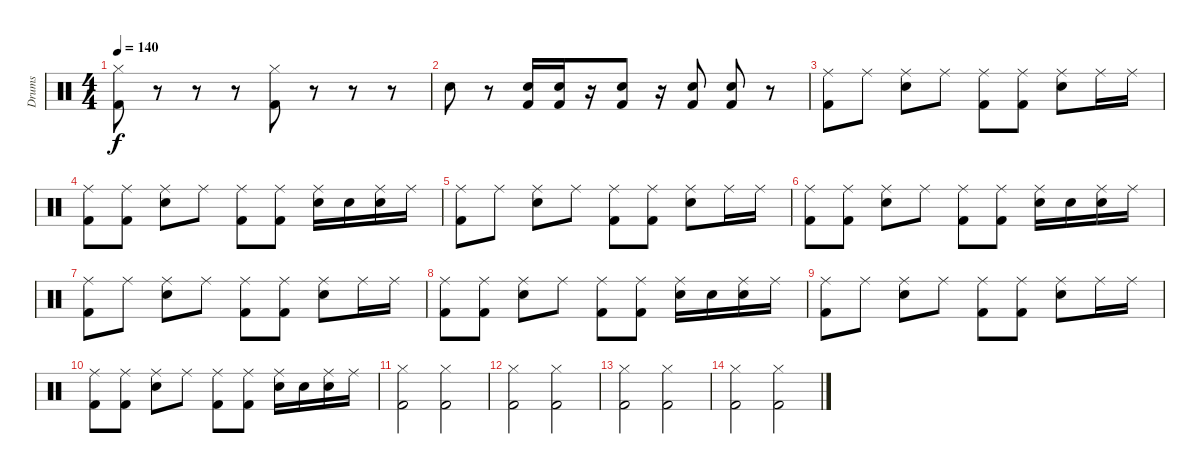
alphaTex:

\track ("Drums" "Drums") {instrument percussion}
\staff {score}
\articulation defaults
\ts (4 4)
\tempo 140
\clef neutral
\ks c
("Hi-Hat (closed)" "Kick (hit) 2").8{dy f} r.8 r.8 r.8 ("Hi-Hat (closed)" "Kick (hit) 2").8 r.8 r.8 r.8 |
"Electric Snare (hit)".8 r.8 ("Electric Snare (hit)" "Kick (hit) 2").16 ("Electric Snare (hit)" "Kick (hit) 2").16 r.16 ("Electric Snare (hit)" "Kick (hit) 2").8 r.16 ("Electric Snare (hit)" "Kick (hit) 2").8 ("Electric Snare (hit)" "Kick (hit) 2").8 r.8 |
("Ride (middle)" "Kick (hit) 2").8 "Ride (middle)".8 ("Ride (middle)" "Electric Snare (hit)").8 "Ride (middle)".8 ("Ride (middle)" "Kick (hit) 2").8 ("Ride (middle)" "Kick (hit) 2").8 ("Ride (middle)" "Electric Snare (hit)").8 "Ride (middle)".16 "Ride (middle)".16 |
("Ride (middle)" "Kick (hit) 2").8 ("Ride (middle)" "Kick (hit) 2").8 ("Ride (middle)" "Electric Snare (hit)").8 "Ride (middle)".8 ("Ride (middle)" "Kick (hit) 2").8 ("Ride (middle)" "Kick (hit) 2").8 ("Ride (middle)" "Electric Snare (hit)").16 "Electric Snare (hit)".16 ("Ride (middle)" "Electric Snare (hit)").16 "Ride (middle)".16 |
("Ride (middle)" "Kick (hit) 2").8 "Ride (middle)".8 ("Ride (middle)" "Electric Snare (hit)").8 "Ride (middle)".8 ("Ride (middle)" "Kick (hit) 2").8 ("Ride (middle)" "Kick (hit) 2").8 ("Ride (middle)" "Electric Snare (hit)").8 "Ride (middle)".16 "Ride (middle)".16 |
("Ride (middle)" "Kick (hit) 2").8 ("Ride (middle)" "Kick (hit) 2").8 ("Ride (middle)" "Electric Snare (hit)").8 "Ride (middle)".8 ("Ride (middle)" "Kick (hit) 2").8 ("Ride (middle)" "Kick (hit) 2").8 ("Ride (middle)" "Electric Snare (hit)").16 "Electric Snare (hit)".16 ("Ride (middle)" "Electric Snare (hit)").16 "Ride (middle)".16 |
("Ride (middle)" "Kick (hit) 2").8 "Ride (middle)".8 ("Ride (middle)" "Electric Snare (hit)").8 "Ride (middle)".8 ("Ride (middle)" "Kick (hit) 2").8 ("Ride (middle)" "Kick (hit) 2").8 ("Ride (middle)" "Electric Snare (hit)").8 "Ride (middle)".16 "Ride (middle)".16 |
("Ride (middle)" "Kick (hit) 2").8 ("Ride (middle)" "Kick (hit) 2").8 ("Ride (middle)" "Electric Snare (hit)").8 "Ride (middle)".8 ("Ride (middle)" "Kick (hit) 2").8 ("Ride (middle)" "Kick (hit) 2").8 ("Ride (middle)" "Electric Snare (hit)").16 "Electric Snare (hit)".16 ("Ride (middle)" "Electric Snare (hit)").16 "Ride (middle)".16 |
("Ride (middle)" "Kick (hit) 2").8 "Ride (middle)".8 ("Ride (middle)" "Electric Snare (hit)").8 "Ride (middle)".8 ("Ride (middle)" "Kick (hit) 2").8 ("Ride (middle)" "Kick (hit) 2").8 ("Ride (middle)" "Electric Snare (hit)").8 "Ride (middle)".16 "Ride (middle)".16 |
("Ride (middle)" "Kick (hit) 2").8 ("Ride (middle)" "Kick (hit) 2").8 ("Ride (middle)" "Electric Snare (hit)").8 "Ride (middle)".8 ("Ride (middle)" "Kick (hit) 2").8 ("Ride (middle)" "Kick (hit) 2").8 ("Ride (middle)" "Electric Snare (hit)").16 "Electric Snare (hit)".16 ("Ride (middle)" "Electric Snare (hit)").16 "Ride (middle)".16 |
("Hi-Hat (closed)" "Kick (hit) 2").2 ("Hi-Hat (closed)" "Kick (hit) 2").2 |
("Hi-Hat (closed)" "Kick (hit) 2").2 ("Hi-Hat (closed)" "Kick (hit) 2").2 |
("Hi-Hat (closed)" "Kick (hit) 2").2 ("Hi-Hat (closed)" "Kick (hit) 2").2 |
("Hi-Hat (closed)" "Kick (hit) 2").2 ("Hi-Hat (closed)" "Kick (hit) 2").2
